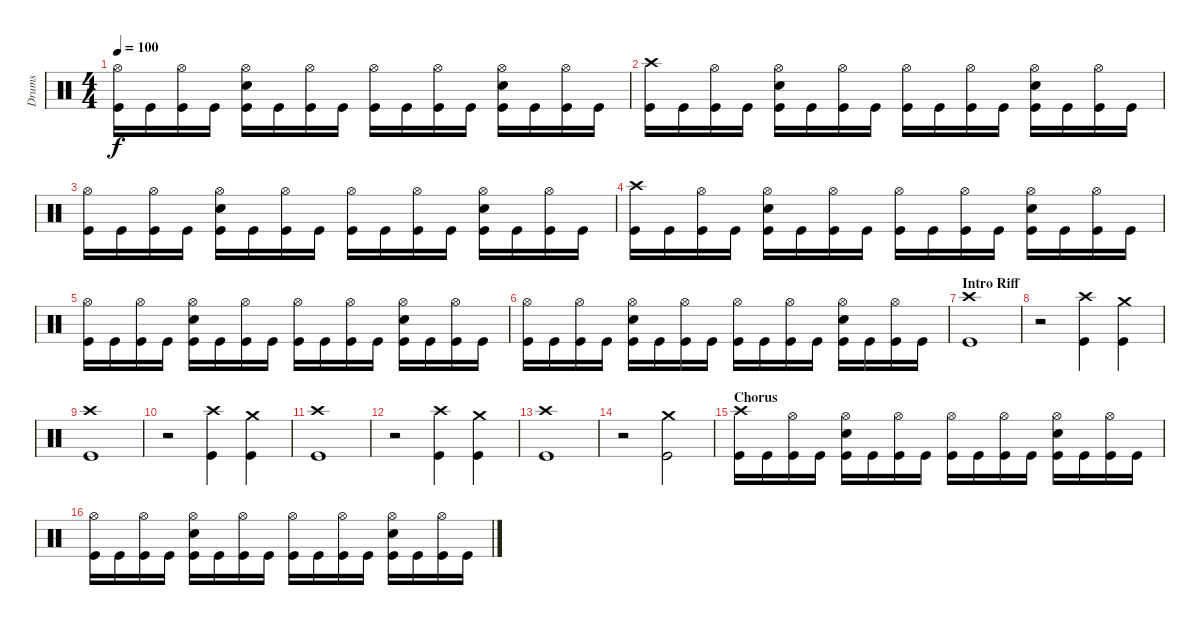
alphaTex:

\track ("Drums" "Drums") {instrument percussion}
\staff {score}
\articulation defaults
\ts (4 4)
\tempo 100
\clef neutral
\ks c
("Hi-Hat (open)" "Kick (hit)").16{dy f} "Kick (hit)".16 ("Hi-Hat (open)" "Kick (hit)").16 "Kick (hit)".16 ("Hi-Hat (open)" "Electric Snare (hit)" "Kick (hit)").16 "Kick (hit)".16 ("Hi-Hat (open)" "Kick (hit)").16 "Kick (hit)".16 ("Hi-Hat (open)" "Kick (hit)").16 "Kick (hit)".16 ("Hi-Hat (open)" "Kick (hit)").16 "Kick (hit)".16 ("Hi-Hat (open)" "Electric Snare (hit)" "Kick (hit)").16 "Kick (hit)".16 ("Hi-Hat (open)" "Kick (hit)").16 "Kick (hit)".16 |
("Crash high (hit)" "Kick (hit)").16 "Kick (hit)".16 ("Hi-Hat (open)" "Kick (hit)").16 "Kick (hit)".16 ("Hi-Hat (open)" "Electric Snare (hit)" "Kick (hit)").16 "Kick (hit)".16 ("Hi-Hat (open)" "Kick (hit)").16 "Kick (hit)".16 ("Hi-Hat (open)" "Kick (hit)").16 "Kick (hit)".16 ("Hi-Hat (open)" "Kick (hit)").16 "Kick (hit)".16 ("Hi-Hat (open)" "Electric Snare (hit)" "Kick (hit)").16 "Kick (hit)".16 ("Hi-Hat (open)" "Kick (hit)").16 "Kick (hit)".16 |
("Hi-Hat (open)" "Kick (hit)").16 "Kick (hit)".16 ("Hi-Hat (open)" "Kick (hit)").16 "Kick (hit)".16 ("Hi-Hat (open)" "Electric Snare (hit)" "Kick (hit)").16 "Kick (hit)".16 ("Hi-Hat (open)" "Kick (hit)").16 "Kick (hit)".16 ("Hi-Hat (open)" "Kick (hit)").16 "Kick (hit)".16 ("Hi-Hat (open)" "Kick (hit)").16 "Kick (hit)".16 ("Hi-Hat (open)" "Electric Snare (hit)" "Kick (hit)").16 "Kick (hit)".16 ("Hi-Hat (open)" "Kick (hit)").16 "Kick (hit)".16 |
("Crash high (hit)" "Kick (hit)").16 "Kick (hit)".16 ("Hi-Hat (open)" "Kick (hit)").16 "Kick (hit)".16 ("Hi-Hat (open)" "Electric Snare (hit)" "Kick (hit)").16 "Kick (hit)".16 ("Hi-Hat (open)" "Kick (hit)").16 "Kick (hit)".16 ("Hi-Hat (open)" "Kick (hit)").16 "Kick (hit)".16 ("Hi-Hat (open)" "Kick (hit)").16 "Kick (hit)".16 ("Hi-Hat (open)" "Electric Snare (hit)" "Kick (hit)").16 "Kick (hit)".16 ("Hi-Hat (open)" "Kick (hit)").16 "Kick (hit)".16 |
("Hi-Hat (open)" "Kick (hit)").16 "Kick (hit)".16 ("Hi-Hat (open)" "Kick (hit)").16 "Kick (hit)".16 ("Hi-Hat (open)" "Electric Snare (hit)" "Kick (hit)").16 "Kick (hit)".16 ("Hi-Hat (open)" "Kick (hit)").16 "Kick (hit)".16 ("Hi-Hat (open)" "Kick (hit)").16 "Kick (hit)".16 ("Hi-Hat (open)" "Kick (hit)").16 "Kick (hit)".16 ("Hi-Hat (open)" "Electric Snare (hit)" "Kick (hit)").16 "Kick (hit)".16 ("Hi-Hat (open)" "Kick (hit)").16 "Kick (hit)".16 |
("Hi-Hat (open)" "Kick (hit)").16 "Kick (hit)".16 ("Hi-Hat (open)" "Kick (hit)").16 "Kick (hit)".16 ("Hi-Hat (open)" "Electric Snare (hit)" "Kick (hit)").16 "Kick (hit)".16 ("Hi-Hat (open)" "Kick (hit)").16 "Kick (hit)".16 ("Hi-Hat (open)" "Kick (hit)").16 "Kick (hit)".16 ("Hi-Hat (open)" "Kick (hit)").16 "Kick (hit)".16 ("Hi-Hat (open)" "Electric Snare (hit)" "Kick (hit)").16 "Kick (hit)".16 ("Hi-Hat (open)" "Kick (hit)").16 "Kick (hit)".16 |
\section ("" "Intro Riff")
("Crash high (hit)" "Kick (hit)").1 |
r.2 ("Crash high (hit)" "Kick (hit)").4 ("Crash medium (hit)" "Kick (hit)").4 |
("Crash high (hit)" "Kick (hit)").1 |
r.2 ("Crash high (hit)" "Kick (hit)").4 ("Crash medium (hit)" "Kick (hit)").4 |
("Crash high (hit)" "Kick (hit)").1 |
r.2 ("Crash high (hit)" "Kick (hit)").4 ("Crash medium (hit)" "Kick (hit)").4 |
("Crash high (hit)" "Kick (hit)").1 |
r.2 ("Crash medium (hit)" "Kick (hit)").2 |
\section ("" "Chorus")
("Crash high (hit)" "Kick (hit)").16 "Kick (hit)".16 ("Hi-Hat (open)" "Kick (hit)").16 "Kick (hit)".16 ("Hi-Hat (open)" "Electric Snare (hit)" "Kick (hit)").16 "Kick (hit)".16 ("Hi-Hat (open)" "Kick (hit)").16 "Kick (hit)".16 ("Hi-Hat (open)" "Kick (hit)").16 "Kick (hit)".16 ("Hi-Hat (open)" "Kick (hit)").16 "Kick (hit)".16 ("Hi-Hat (open)" "Electric Snare (hit)" "Kick (hit)").16 "Kick (hit)".16 ("Hi-Hat (open)" "Kick (hit)").16 "Kick (hit)".16 |
("Hi-Hat (open)" "Kick (hit)").16 "Kick (hit)".16 ("Hi-Hat (open)" "Kick (hit)").16 "Kick (hit)".16 ("Hi-Hat (open)" "Electric Snare (hit)" "Kick (hit)").16 "Kick (hit)".16 ("Hi-Hat (open)" "Kick (hit)").16 "Kick (hit)".16 ("Hi-Hat (open)" "Kick (hit)").16 "Kick (hit)".16 ("Hi-Hat (open)" "Kick (hit)").16 "Kick (hit)".16 ("Hi-Hat (open)" "Electric Snare (hit)" "Kick (hit)").16 "Kick (hit)".16 ("Hi-Hat (open)" "Kick (hit)").16 "Kick (hit)".16
